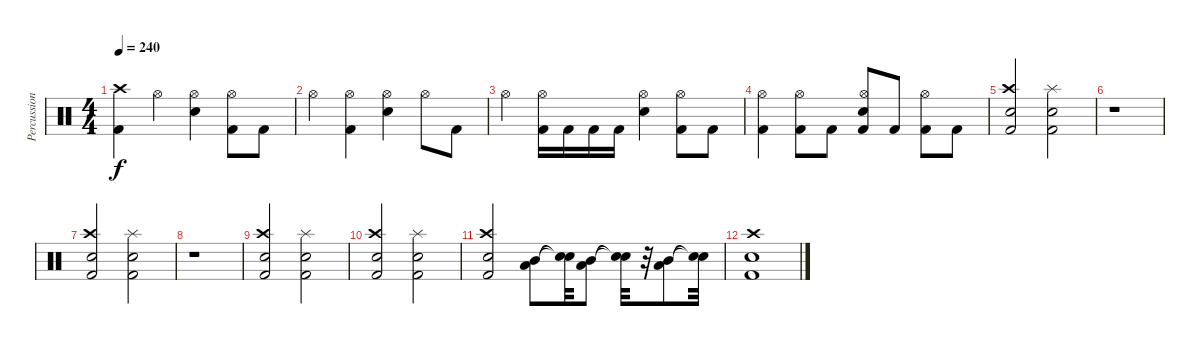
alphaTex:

\track ("Percussion" "Percussion") {instrument percussion}
\staff {score}
\articulation defaults
\ts (4 4)
\tempo 240
\clef neutral
\ks c
("Kick (hit) 2" "Crash high (hit)").4{dy f} "Hi-Hat (open)".4 ("Electric Snare (hit)" "Hi-Hat (open)").4 ("Kick (hit) 2" "Hi-Hat (open)").8 "Kick (hit) 2".8 |
"Hi-Hat (open)".4 ("Kick (hit) 2" "Hi-Hat (open)").4 ("Electric Snare (hit)" "Hi-Hat (open)").4 "Hi-Hat (open)".8 "Kick (hit) 2".8 |
"Hi-Hat (open)".4 ("Kick (hit) 2" "Hi-Hat (open)").16 "Kick (hit) 2".16 "Kick (hit) 2".16 "Kick (hit) 2".16 ("Electric Snare (hit)" "Hi-Hat (open)").4 ("Kick (hit) 2" "Hi-Hat (open)").8 "Kick (hit) 2".8 |
("Kick (hit) 2" "Hi-Hat (open)").4 ("Kick (hit) 2" "Hi-Hat (open)").8 "Kick (hit) 2".8 ("Kick (hit) 2" "Electric Snare (hit)" "Hi-Hat (open)").8 "Kick (hit) 2".8 ("Kick (hit) 2" "Hi-Hat (open)").8 "Kick (hit) 2".8 |
("Kick (hit) 2" "Electric Snare (hit)" "Crash high (hit)").2 ("Kick (hit) 2" "Electric Snare (hit)" "Splash (hit)").2 |
r.1 |
("Kick (hit) 2" "Electric Snare (hit)" "Crash high (hit)").2 ("Kick (hit) 2" "Electric Snare (hit)" "Splash (hit)").2 |
r.1 |
("Kick (hit) 2" "Electric Snare (hit)" "Crash high (hit)").2 ("Kick (hit) 2" "Electric Snare (hit)" "Splash (hit)").2 |
("Kick (hit) 2" "Electric Snare (hit)" "Crash high (hit)").2 ("Kick (hit) 2" "Electric Snare (hit)" "Splash (hit)").2 |
("Kick (hit) 2" "Electric Snare (hit)" "Crash high (hit)").2 ("Low Tom (hit)" "Mid Tom (hit)").8 ("Snare (hit)"{t} "Snare (hit)"{t}).32 ("Low Tom (hit)" "Mid Tom (hit)").8 ("Snare (hit)"{t} "Snare (hit)"{t}).32 r.32 ("Low Tom (hit)" "Mid Tom (hit)").8 ("Snare (hit)"{t} "Snare (hit)"{t}).32 |
("Kick (hit) 2" "Electric Snare (hit)" "Crash high (hit)").1
